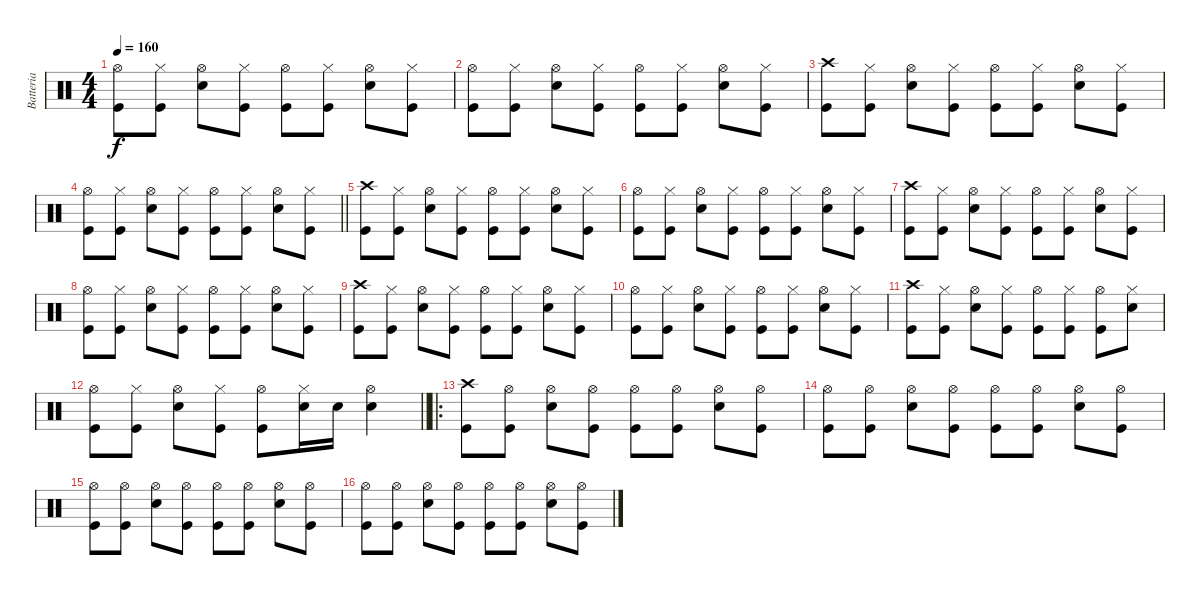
\track ("Batteria" "Batteria") {instrument percussion}
\staff {score}
\articulation defaults
\ts (4 4)
\tempo 160
\clef neutral
\ks c
("Kick (hit)" "Hi-Hat (open)").8{dy f} ("Kick (hit)" "Hi-Hat (closed)").8 ("Snare (hit) 2" "Hi-Hat (open)").8 ("Kick (hit)" "Hi-Hat (closed)").8 ("Kick (hit)" "Hi-Hat (open)").8 ("Kick (hit)" "Hi-Hat (closed)").8 ("Snare (hit) 2" "Hi-Hat (open)").8 ("Kick (hit)" "Hi-Hat (closed)").8 |
("Kick (hit)" "Hi-Hat (open)").8 ("Kick (hit)" "Hi-Hat (closed)").8 ("Snare (hit) 2" "Hi-Hat (open)").8 ("Kick (hit)" "Hi-Hat (closed)").8 ("Kick (hit)" "Hi-Hat (open)").8 ("Kick (hit)" "Hi-Hat (closed)").8 ("Snare (hit) 2" "Hi-Hat (open)").8 ("Kick (hit)" "Hi-Hat (closed)").8 |
("Kick (hit)" "Crash high (hit)").8 ("Kick (hit)" "Hi-Hat (closed)").8 ("Snare (hit) 2" "Hi-Hat (open)").8 ("Kick (hit)" "Hi-Hat (closed)").8 ("Kick (hit)" "Hi-Hat (open)").8 ("Kick (hit)" "Hi-Hat (closed)").8 ("Snare (hit) 2" "Hi-Hat (open)").8 ("Kick (hit)" "Hi-Hat (closed)").8 |
\barLineRight lightlight
("Kick (hit)" "Hi-Hat (open)").8 ("Kick (hit)" "Hi-Hat (closed)").8 ("Snare (hit) 2" "Hi-Hat (open)").8 ("Kick (hit)" "Hi-Hat (closed)").8 ("Kick (hit)" "Hi-Hat (open)").8 ("Kick (hit)" "Hi-Hat (closed)").8 ("Snare (hit) 2" "Hi-Hat (open)").8 ("Kick (hit)" "Hi-Hat (closed)").8 |
("Kick (hit)" "Crash high (hit)").8 ("Kick (hit)" "Hi-Hat (closed)").8 ("Snare (hit) 2" "Hi-Hat (open)").8 ("Kick (hit)" "Hi-Hat (closed)").8 ("Kick (hit)" "Hi-Hat (open)").8 ("Kick (hit)" "Hi-Hat (closed)").8 ("Snare (hit) 2" "Hi-Hat (open)").8 ("Kick (hit)" "Hi-Hat (closed)").8 |
("Kick (hit)" "Hi-Hat (open)").8 ("Kick (hit)" "Hi-Hat (closed)").8 ("Snare (hit) 2" "Hi-Hat (open)").8 ("Kick (hit)" "Hi-Hat (closed)").8 ("Kick (hit)" "Hi-Hat (open)").8 ("Kick (hit)" "Hi-Hat (closed)").8 ("Snare (hit) 2" "Hi-Hat (open)").8 ("Kick (hit)" "Hi-Hat (closed)").8 |
("Kick (hit)" "Crash high (hit)").8 ("Kick (hit)" "Hi-Hat (closed)").8 ("Snare (hit) 2" "Hi-Hat (open)").8 ("Kick (hit)" "Hi-Hat (closed)").8 ("Kick (hit)" "Hi-Hat (open)").8 ("Kick (hit)" "Hi-Hat (closed)").8 ("Snare (hit) 2" "Hi-Hat (open)").8 ("Kick (hit)" "Hi-Hat (closed)").8 |
("Kick (hit)" "Hi-Hat (open)").8 ("Kick (hit)" "Hi-Hat (closed)").8 ("Snare (hit) 2" "Hi-Hat (open)").8 ("Kick (hit)" "Hi-Hat (closed)").8 ("Kick (hit)" "Hi-Hat (open)").8 ("Kick (hit)" "Hi-Hat (closed)").8 ("Snare (hit) 2" "Hi-Hat (open)").8 ("Kick (hit)" "Hi-Hat (closed)").8 |
("Kick (hit)" "Crash high (hit)").8 ("Kick (hit)" "Hi-Hat (closed)").8 ("Snare (hit) 2" "Hi-Hat (open)").8 ("Kick (hit)" "Hi-Hat (closed)").8 ("Kick (hit)" "Hi-Hat (open)").8 ("Kick (hit)" "Hi-Hat (closed)").8 ("Snare (hit) 2" "Hi-Hat (open)").8 ("Kick (hit)" "Hi-Hat (closed)").8 |
("Kick (hit)" "Hi-Hat (open)").8 ("Kick (hit)" "Hi-Hat (closed)").8 ("Snare (hit) 2" "Hi-Hat (open)").8 ("Kick (hit)" "Hi-Hat (closed)").8 ("Kick (hit)" "Hi-Hat (open)").8 ("Kick (hit)" "Hi-Hat (closed)").8 ("Snare (hit) 2" "Hi-Hat (open)").8 ("Kick (hit)" "Hi-Hat (closed)").8 |
("Kick (hit)" "Crash high (hit)").8 ("Kick (hit)" "Hi-Hat (closed)").8 ("Snare (hit) 2" "Hi-Hat (open)").8 ("Kick (hit)" "Hi-Hat (closed)").8 ("Kick (hit)" "Hi-Hat (open)").8 ("Kick (hit)" "Hi-Hat (closed)").8 ("Kick (hit)" "Hi-Hat (open)").8 ("Snare (hit) 2" "Hi-Hat (closed)").8 |
\barLineRight lightlight
("Kick (hit)" "Hi-Hat (open)").8 ("Kick (hit)" "Hi-Hat (closed)").8 ("Snare (hit) 2" "Hi-Hat (open)").8 ("Kick (hit)" "Hi-Hat (closed)").8 ("Kick (hit)" "Hi-Hat (open)").8 ("Snare (hit) 2" "Hi-Hat (closed)").16 "Snare (hit) 2".16 ("Snare (hit) 2" "Hi-Hat (open)").4 |
\ro
("Kick (hit)" "Crash high (hit)").8 ("Kick (hit)" "Hi-Hat (open)").8 ("Snare (hit) 2" "Hi-Hat (open)").8 ("Kick (hit)" "Hi-Hat (open)").8 ("Kick (hit)" "Hi-Hat (open)").8 ("Kick (hit)" "Hi-Hat (open)").8 ("Snare (hit) 2" "Hi-Hat (open)").8 ("Kick (hit)" "Hi-Hat (open)").8 |
("Kick (hit)" "Hi-Hat (open)").8 ("Kick (hit)" "Hi-Hat (open)").8 ("Snare (hit) 2" "Hi-Hat (open)").8 ("Kick (hit)" "Hi-Hat (open)").8 ("Kick (hit)" "Hi-Hat (open)").8 ("Kick (hit)" "Hi-Hat (open)").8 ("Snare (hit) 2" "Hi-Hat (open)").8 ("Kick (hit)" "Hi-Hat (open)").8 |
("Kick (hit)" "Hi-Hat (open)").8 ("Kick (hit)" "Hi-Hat (open)").8 ("Snare (hit) 2" "Hi-Hat (open)").8 ("Kick (hit)" "Hi-Hat (open)").8 ("Kick (hit)" "Hi-Hat (open)").8 ("Kick (hit)" "Hi-Hat (open)").8 ("Snare (hit) 2" "Hi-Hat (open)").8 ("Kick (hit)" "Hi-Hat (open)").8 |
("Kick (hit)" "Hi-Hat (open)").8 ("Kick (hit)" "Hi-Hat (open)").8 ("Snare (hit) 2" "Hi-Hat (open)").8 ("Kick (hit)" "Hi-Hat (open)").8 ("Kick (hit)" "Hi-Hat (open)").8 ("Kick (hit)" "Hi-Hat (open)").8 ("Snare (hit) 2" "Hi-Hat (open)").8 ("Kick (hit)" "Hi-Hat (open)").8
